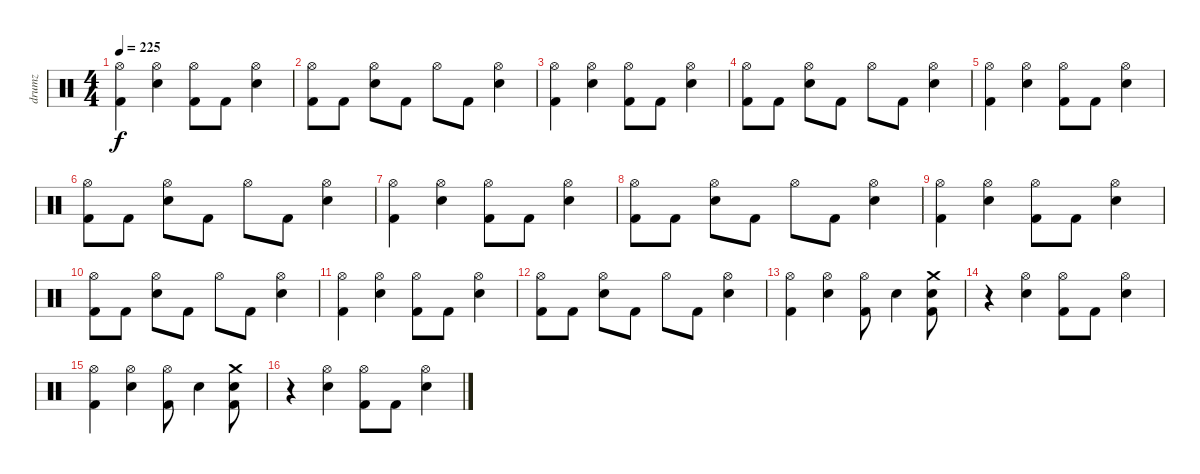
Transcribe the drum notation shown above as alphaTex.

\track ("drumz" "drumz") {instrument percussion}
\staff {score}
\articulation defaults
\ts (4 4)
\tempo 225
\clef neutral
\ks c
("Hi-Hat (open)" "Kick (hit) 2").4{dy f} ("Hi-Hat (open)" "Electric Snare (hit)").4 ("Hi-Hat (open)" "Kick (hit) 2").8 "Kick (hit) 2".8 ("Hi-Hat (open)" "Electric Snare (hit)").4 |
("Hi-Hat (open)" "Kick (hit) 2").8 "Kick (hit) 2".8 ("Hi-Hat (open)" "Electric Snare (hit)").8 "Kick (hit) 2".8 "Hi-Hat (open)".8 "Kick (hit) 2".8 ("Hi-Hat (open)" "Electric Snare (hit)").4 |
("Hi-Hat (open)" "Kick (hit) 2").4 ("Hi-Hat (open)" "Electric Snare (hit)").4 ("Hi-Hat (open)" "Kick (hit) 2").8 "Kick (hit) 2".8 ("Hi-Hat (open)" "Electric Snare (hit)").4 |
("Hi-Hat (open)" "Kick (hit) 2").8 "Kick (hit) 2".8 ("Hi-Hat (open)" "Electric Snare (hit)").8 "Kick (hit) 2".8 "Hi-Hat (open)".8 "Kick (hit) 2".8 ("Hi-Hat (open)" "Electric Snare (hit)").4 |
("Hi-Hat (open)" "Kick (hit) 2").4 ("Hi-Hat (open)" "Electric Snare (hit)").4 ("Hi-Hat (open)" "Kick (hit) 2").8 "Kick (hit) 2".8 ("Hi-Hat (open)" "Electric Snare (hit)").4 |
("Hi-Hat (open)" "Kick (hit) 2").8 "Kick (hit) 2".8 ("Hi-Hat (open)" "Electric Snare (hit)").8 "Kick (hit) 2".8 "Hi-Hat (open)".8 "Kick (hit) 2".8 ("Hi-Hat (open)" "Electric Snare (hit)").4 |
("Hi-Hat (open)" "Kick (hit) 2").4 ("Hi-Hat (open)" "Electric Snare (hit)").4 ("Hi-Hat (open)" "Kick (hit) 2").8 "Kick (hit) 2".8 ("Hi-Hat (open)" "Electric Snare (hit)").4 |
("Hi-Hat (open)" "Kick (hit) 2").8 "Kick (hit) 2".8 ("Hi-Hat (open)" "Electric Snare (hit)").8 "Kick (hit) 2".8 "Hi-Hat (open)".8 "Kick (hit) 2".8 ("Hi-Hat (open)" "Electric Snare (hit)").4 |
("Hi-Hat (open)" "Kick (hit) 2").4 ("Hi-Hat (open)" "Electric Snare (hit)").4 ("Hi-Hat (open)" "Kick (hit) 2").8 "Kick (hit) 2".8 ("Hi-Hat (open)" "Electric Snare (hit)").4 |
("Hi-Hat (open)" "Kick (hit) 2").8 "Kick (hit) 2".8 ("Hi-Hat (open)" "Electric Snare (hit)").8 "Kick (hit) 2".8 "Hi-Hat (open)".8 "Kick (hit) 2".8 ("Hi-Hat (open)" "Electric Snare (hit)").4 |
("Hi-Hat (open)" "Kick (hit) 2").4 ("Hi-Hat (open)" "Electric Snare (hit)").4 ("Hi-Hat (open)" "Kick (hit) 2").8 "Kick (hit) 2".8 ("Hi-Hat (open)" "Electric Snare (hit)").4 |
("Hi-Hat (open)" "Kick (hit) 2").8 "Kick (hit) 2".8 ("Hi-Hat (open)" "Electric Snare (hit)").8 "Kick (hit) 2".8 "Hi-Hat (open)".8 "Kick (hit) 2".8 ("Hi-Hat (open)" "Electric Snare (hit)").4 |
("Hi-Hat (open)" "Kick (hit) 2").4 ("Hi-Hat (open)" "Electric Snare (hit)").4 ("Hi-Hat (open)" "Kick (hit) 2").8 "Electric Snare (hit)".4 ("Crash medium (hit)" "Electric Snare (hit)" "Kick (hit) 2").8 |
r.4 ("Hi-Hat (open)" "Electric Snare (hit)").4 ("Hi-Hat (open)" "Kick (hit) 2").8 "Kick (hit) 2".8 ("Hi-Hat (open)" "Electric Snare (hit)").4 |
("Hi-Hat (open)" "Kick (hit) 2").4 ("Hi-Hat (open)" "Electric Snare (hit)").4 ("Hi-Hat (open)" "Kick (hit) 2").8 "Electric Snare (hit)".4 ("Crash medium (hit)" "Electric Snare (hit)" "Kick (hit) 2").8 |
r.4 ("Hi-Hat (open)" "Electric Snare (hit)").4 ("Hi-Hat (open)" "Kick (hit) 2").8 "Kick (hit) 2".8 ("Hi-Hat (open)" "Electric Snare (hit)").4
